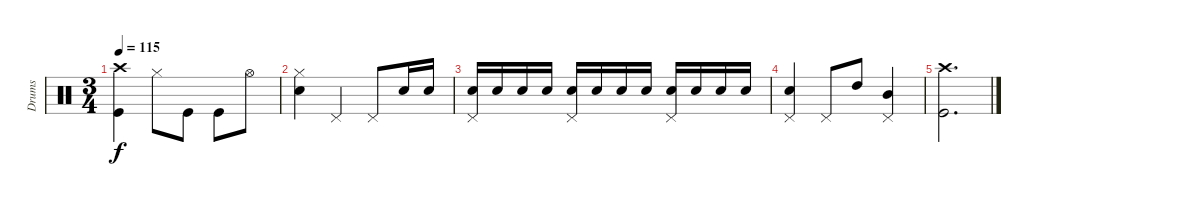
\track ("Drums" "Drums") {instrument percussion}
\staff {score}
\articulation defaults
\ts (3 4)
\tempo 115
\clef neutral
\ks c
("Crash high (hit)" "Kick (hit)").4{dy f} "Hi-Hat (closed)".8 "Kick (hit)".8 "Kick (hit)".8 "Hi-Hat (open)".8 |
("Hi-Hat (closed)" "Snare (hit) 2").4 "Pedal Hi-Hat (hit)".4 "Pedal Hi-Hat (hit)".8 "Snare (hit) 2".16 "Snare (hit) 2".16 |
("Pedal Hi-Hat (hit)" "Snare (hit) 2").16 "Snare (hit) 2".16 "Snare (hit) 2".16 "Snare (hit) 2".16 ("Pedal Hi-Hat (hit)" "Snare (hit) 2").16 "Snare (hit) 2".16 "Snare (hit) 2".16 "Snare (hit) 2".16 ("Pedal Hi-Hat (hit)" "Snare (hit) 2").16 "Snare (hit) 2".16 "Snare (hit) 2".16 "Snare (hit) 2".16 |
("Pedal Hi-Hat (hit)" "Snare (hit) 2").4 "Pedal Hi-Hat (hit)".8 "High Tom (hit)".8 ("Pedal Hi-Hat (hit)" "Mid Tom (hit)").4 |
("Crash high (hit)" "Kick (hit)").2{d}
